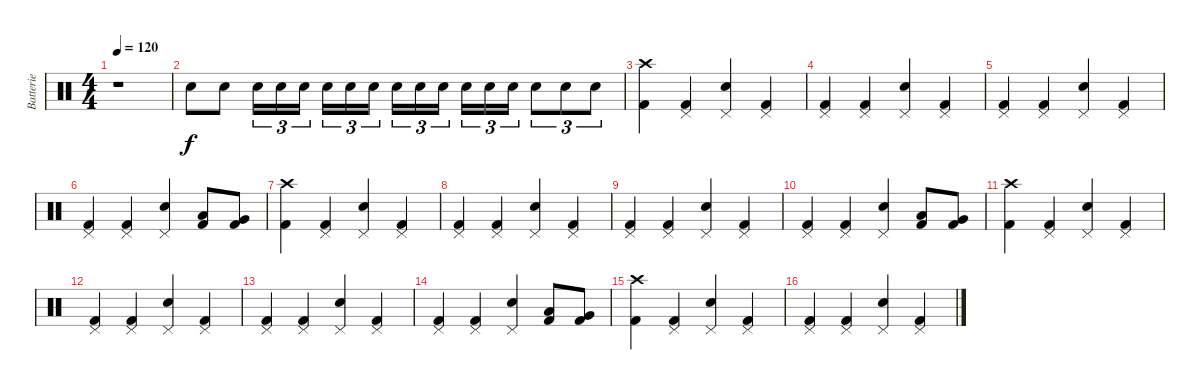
\track ("Batterie" "Batterie") {instrument percussion}
\staff {score}
\articulation defaults
\ts (4 4)
\tempo 120
\clef neutral
\ks c
r.1{dy f} |
"Electric Snare (hit)".8 "Electric Snare (hit)".8 "Electric Snare (hit)".16{tu (3 2)} "Electric Snare (hit)".16{tu (3 2)} "Electric Snare (hit)".16{tu (3 2)} "Electric Snare (hit)".16{tu (3 2)} "Electric Snare (hit)".16{tu (3 2)} "Electric Snare (hit)".16{tu (3 2)} "Electric Snare (hit)".16{tu (3 2)} "Electric Snare (hit)".16{tu (3 2)} "Electric Snare (hit)".16{tu (3 2)} "Electric Snare (hit)".16{tu (3 2)} "Electric Snare (hit)".16{tu (3 2)} "Electric Snare (hit)".16{tu (3 2)} "Electric Snare (hit)".8{tu (3 2)} "Electric Snare (hit)".8{tu (3 2)} "Electric Snare (hit)".8{tu (3 2)} |
("Crash high (hit)" "Kick (hit) 2").4 ("Pedal Hi-Hat (hit)" "Kick (hit) 2").4 ("Pedal Hi-Hat (hit)" "Electric Snare (hit)").4 ("Pedal Hi-Hat (hit)" "Kick (hit) 2").4 |
("Pedal Hi-Hat (hit)" "Kick (hit) 2").4 ("Pedal Hi-Hat (hit)" "Kick (hit) 2").4 ("Pedal Hi-Hat (hit)" "Electric Snare (hit)").4 ("Pedal Hi-Hat (hit)" "Kick (hit) 2").4 |
("Pedal Hi-Hat (hit)" "Kick (hit) 2").4 ("Pedal Hi-Hat (hit)" "Kick (hit) 2").4 ("Pedal Hi-Hat (hit)" "Electric Snare (hit)").4 ("Pedal Hi-Hat (hit)" "Kick (hit) 2").4 |
("Pedal Hi-Hat (hit)" "Kick (hit) 2").4 ("Pedal Hi-Hat (hit)" "Kick (hit) 2").4 ("Pedal Hi-Hat (hit)" "Electric Snare (hit)").4 ("Low Tom (hit)" "Kick (hit) 2").8 ("Very Low Tom (hit)" "Kick (hit) 2").8 |
("Crash high (hit)" "Kick (hit) 2").4 ("Pedal Hi-Hat (hit)" "Kick (hit) 2").4 ("Pedal Hi-Hat (hit)" "Electric Snare (hit)").4 ("Pedal Hi-Hat (hit)" "Kick (hit) 2").4 |
("Pedal Hi-Hat (hit)" "Kick (hit) 2").4 ("Pedal Hi-Hat (hit)" "Kick (hit) 2").4 ("Pedal Hi-Hat (hit)" "Electric Snare (hit)").4 ("Pedal Hi-Hat (hit)" "Kick (hit) 2").4 |
("Pedal Hi-Hat (hit)" "Kick (hit) 2").4 ("Pedal Hi-Hat (hit)" "Kick (hit) 2").4 ("Pedal Hi-Hat (hit)" "Electric Snare (hit)").4 ("Pedal Hi-Hat (hit)" "Kick (hit) 2").4 |
("Pedal Hi-Hat (hit)" "Kick (hit) 2").4 ("Pedal Hi-Hat (hit)" "Kick (hit) 2").4 ("Pedal Hi-Hat (hit)" "Electric Snare (hit)").4 ("Low Tom (hit)" "Kick (hit) 2").8 ("Very Low Tom (hit)" "Kick (hit) 2").8 |
("Crash high (hit)" "Kick (hit) 2").4 ("Pedal Hi-Hat (hit)" "Kick (hit) 2").4 ("Pedal Hi-Hat (hit)" "Electric Snare (hit)").4 ("Pedal Hi-Hat (hit)" "Kick (hit) 2").4 |
("Pedal Hi-Hat (hit)" "Kick (hit) 2").4 ("Pedal Hi-Hat (hit)" "Kick (hit) 2").4 ("Pedal Hi-Hat (hit)" "Electric Snare (hit)").4 ("Pedal Hi-Hat (hit)" "Kick (hit) 2").4 |
("Pedal Hi-Hat (hit)" "Kick (hit) 2").4 ("Pedal Hi-Hat (hit)" "Kick (hit) 2").4 ("Pedal Hi-Hat (hit)" "Electric Snare (hit)").4 ("Pedal Hi-Hat (hit)" "Kick (hit) 2").4 |
("Pedal Hi-Hat (hit)" "Kick (hit) 2").4 ("Pedal Hi-Hat (hit)" "Kick (hit) 2").4 ("Pedal Hi-Hat (hit)" "Electric Snare (hit)").4 ("Low Tom (hit)" "Kick (hit) 2").8 ("Very Low Tom (hit)" "Kick (hit) 2").8 |
("Crash high (hit)" "Kick (hit) 2").4 ("Pedal Hi-Hat (hit)" "Kick (hit) 2").4 ("Pedal Hi-Hat (hit)" "Electric Snare (hit)").4 ("Pedal Hi-Hat (hit)" "Kick (hit) 2").4 |
("Pedal Hi-Hat (hit)" "Kick (hit) 2").4 ("Pedal Hi-Hat (hit)" "Kick (hit) 2").4 ("Pedal Hi-Hat (hit)" "Electric Snare (hit)").4 ("Pedal Hi-Hat (hit)" "Kick (hit) 2").4
